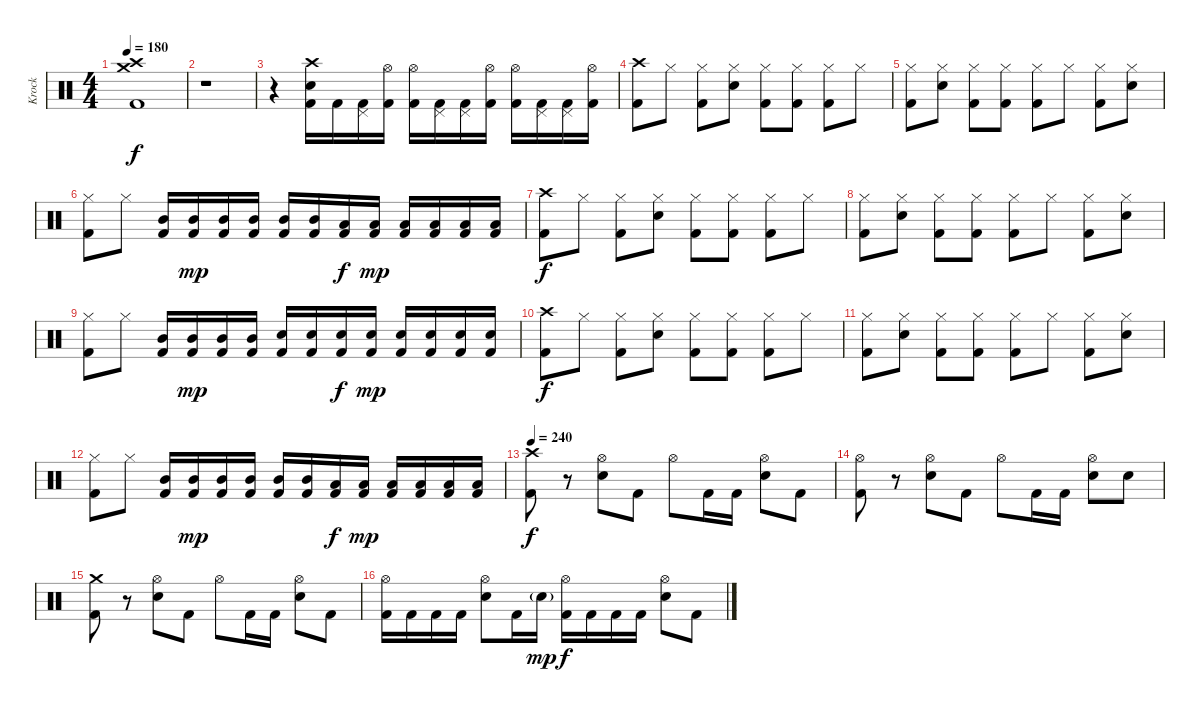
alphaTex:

\track ("Krock" "Krock") {instrument percussion}
\staff {score}
\articulation defaults
\ts (4 4)
\tempo 180
\clef neutral
\ks c
("Crash high (hit)" "Crash medium (hit)" "Kick (hit) 2").1{dy f} |
r.1 |
r.4 ("Kick (hit) 2" "Electric Snare (hit)" "Crash high (hit)").16 "Kick (hit) 2".16 ("Kick (hit) 2" "Pedal Hi-Hat (hit)").16 ("Kick (hit) 2" "Hi-Hat (open)").16 ("Kick (hit) 2" "Hi-Hat (open)").16 ("Kick (hit) 2" "Pedal Hi-Hat (hit)").16 ("Kick (hit) 2" "Pedal Hi-Hat (hit)").16 ("Kick (hit) 2" "Hi-Hat (open)").16 ("Kick (hit) 2" "Hi-Hat (open)").16 ("Kick (hit) 2" "Pedal Hi-Hat (hit)").16 ("Kick (hit) 2" "Pedal Hi-Hat (hit)").16 ("Kick (hit) 2" "Hi-Hat (open)").16 |
("Kick (hit) 2" "Crash high (hit)").8 "Hi-Hat (closed)".8 ("Kick (hit) 2" "Hi-Hat (closed)").8 ("Electric Snare (hit)" "Hi-Hat (closed)").8 ("Kick (hit) 2" "Hi-Hat (closed)").8 ("Kick (hit) 2" "Hi-Hat (closed)").8 ("Kick (hit) 2" "Hi-Hat (closed)").8 "Hi-Hat (closed)".8 |
("Kick (hit) 2" "Hi-Hat (closed)").8 ("Electric Snare (hit)" "Hi-Hat (closed)").8 ("Kick (hit) 2" "Hi-Hat (closed)").8 ("Kick (hit) 2" "Hi-Hat (closed)").8 ("Kick (hit) 2" "Hi-Hat (closed)").8 "Hi-Hat (closed)".8 ("Kick (hit) 2" "Hi-Hat (closed)").8 ("Electric Snare (hit)" "Hi-Hat (closed)").8 |
("Kick (hit) 2" "Hi-Hat (closed)").8 "Hi-Hat (closed)".8 ("Mid Tom (hit)" "Kick (hit) 2").16 ("Mid Tom (hit)" "Kick (hit) 2").16{dy mp} ("Mid Tom (hit)" "Kick (hit) 2").16 ("Mid Tom (hit)" "Kick (hit) 2").16 ("Mid Tom (hit)" "Kick (hit) 2").16 ("Mid Tom (hit)" "Kick (hit) 2").16 ("Low Tom (hit)" "Kick (hit) 2").16{dy f} ("Low Tom (hit)" "Kick (hit) 2").16{dy mp} ("Low Tom (hit)" "Kick (hit) 2").16 ("Low Tom (hit)" "Kick (hit) 2").16 ("Low Tom (hit)" "Kick (hit) 2").16 ("Low Tom (hit)" "Kick (hit) 2").16 |
("Kick (hit) 2" "Crash high (hit)").8{dy f} "Hi-Hat (closed)".8 ("Kick (hit) 2" "Hi-Hat (closed)").8 ("Electric Snare (hit)" "Hi-Hat (closed)").8 ("Kick (hit) 2" "Hi-Hat (closed)").8 ("Kick (hit) 2" "Hi-Hat (closed)").8 ("Kick (hit) 2" "Hi-Hat (closed)").8 "Hi-Hat (closed)".8 |
("Kick (hit) 2" "Hi-Hat (closed)").8 ("Electric Snare (hit)" "Hi-Hat (closed)").8 ("Kick (hit) 2" "Hi-Hat (closed)").8 ("Kick (hit) 2" "Hi-Hat (closed)").8 ("Kick (hit) 2" "Hi-Hat (closed)").8 "Hi-Hat (closed)".8 ("Kick (hit) 2" "Hi-Hat (closed)").8 ("Electric Snare (hit)" "Hi-Hat (closed)").8 |
("Kick (hit) 2" "Hi-Hat (closed)").8 "Hi-Hat (closed)".8 ("Mid Tom (hit)" "Kick (hit) 2").16 ("Mid Tom (hit)" "Kick (hit) 2").16{dy mp} ("Mid Tom (hit)" "Kick (hit) 2").16 ("Mid Tom (hit)" "Kick (hit) 2").16 ("Electric Snare (hit)" "Kick (hit) 2").16 ("Electric Snare (hit)" "Kick (hit) 2").16 ("Electric Snare (hit)" "Kick (hit) 2").16{dy f} ("Electric Snare (hit)" "Kick (hit) 2").16{dy mp} ("Electric Snare (hit)" "Kick (hit) 2").16 ("Electric Snare (hit)" "Kick (hit) 2").16 ("Electric Snare (hit)" "Kick (hit) 2").16 ("Electric Snare (hit)" "Kick (hit) 2").16 |
("Kick (hit) 2" "Crash high (hit)").8{dy f} "Hi-Hat (closed)".8 ("Kick (hit) 2" "Hi-Hat (closed)").8 ("Electric Snare (hit)" "Hi-Hat (closed)").8 ("Kick (hit) 2" "Hi-Hat (closed)").8 ("Kick (hit) 2" "Hi-Hat (closed)").8 ("Kick (hit) 2" "Hi-Hat (closed)").8 "Hi-Hat (closed)".8 |
("Kick (hit) 2" "Hi-Hat (closed)").8 ("Electric Snare (hit)" "Hi-Hat (closed)").8 ("Kick (hit) 2" "Hi-Hat (closed)").8 ("Kick (hit) 2" "Hi-Hat (closed)").8 ("Kick (hit) 2" "Hi-Hat (closed)").8 "Hi-Hat (closed)".8 ("Kick (hit) 2" "Hi-Hat (closed)").8 ("Electric Snare (hit)" "Hi-Hat (closed)").8 |
("Kick (hit) 2" "Hi-Hat (closed)").8 "Hi-Hat (closed)".8 ("Mid Tom (hit)" "Kick (hit) 2").16 ("Mid Tom (hit)" "Kick (hit) 2").16{dy mp} ("Mid Tom (hit)" "Kick (hit) 2").16 ("Mid Tom (hit)" "Kick (hit) 2").16 ("Mid Tom (hit)" "Kick (hit) 2").16 ("Mid Tom (hit)" "Kick (hit) 2").16 ("Low Tom (hit)" "Kick (hit) 2").16{dy f} ("Low Tom (hit)" "Kick (hit) 2").16{dy mp} ("Low Tom (hit)" "Kick (hit) 2").16 ("Low Tom (hit)" "Kick (hit) 2").16 ("Low Tom (hit)" "Kick (hit) 2").16 ("Low Tom (hit)" "Kick (hit) 2").16 |
\tempo 240
("Kick (hit) 2" "Crash high (hit)").8{dy f} r.8 ("Electric Snare (hit)" "Hi-Hat (open)").8 "Kick (hit) 2".8 "Hi-Hat (open)".8 "Kick (hit) 2".16 "Kick (hit) 2".16 ("Electric Snare (hit)" "Hi-Hat (open)").8 "Kick (hit) 2".8 |
("Kick (hit) 2" "Hi-Hat (open)").8 r.8 ("Electric Snare (hit)" "Hi-Hat (open)").8 "Kick (hit) 2".8 "Hi-Hat (open)".8 "Kick (hit) 2".16 "Kick (hit) 2".16 ("Electric Snare (hit)" "Hi-Hat (open)").8 "Electric Snare (hit)".8 |
("Kick (hit) 2" "Crash medium (hit)").8 r.8 ("Electric Snare (hit)" "Hi-Hat (open)").8 "Kick (hit) 2".8 "Hi-Hat (open)".8 "Kick (hit) 2".16 "Kick (hit) 2".16 ("Electric Snare (hit)" "Hi-Hat (open)").8 "Kick (hit) 2".8 |
("Kick (hit) 2" "Hi-Hat (open)").16 "Kick (hit) 2".16 "Kick (hit) 2".16 "Kick (hit) 2".16 ("Electric Snare (hit)" "Hi-Hat (open)").8 "Kick (hit) 2".16 "Electric Snare (hit)"{g}.16{dy mp} ("Kick (hit) 2" "Hi-Hat (open)").16{dy f} "Kick (hit) 2".16 "Kick (hit) 2".16 "Kick (hit) 2".16 ("Electric Snare (hit)" "Hi-Hat (open)").8 "Kick (hit) 2".8
